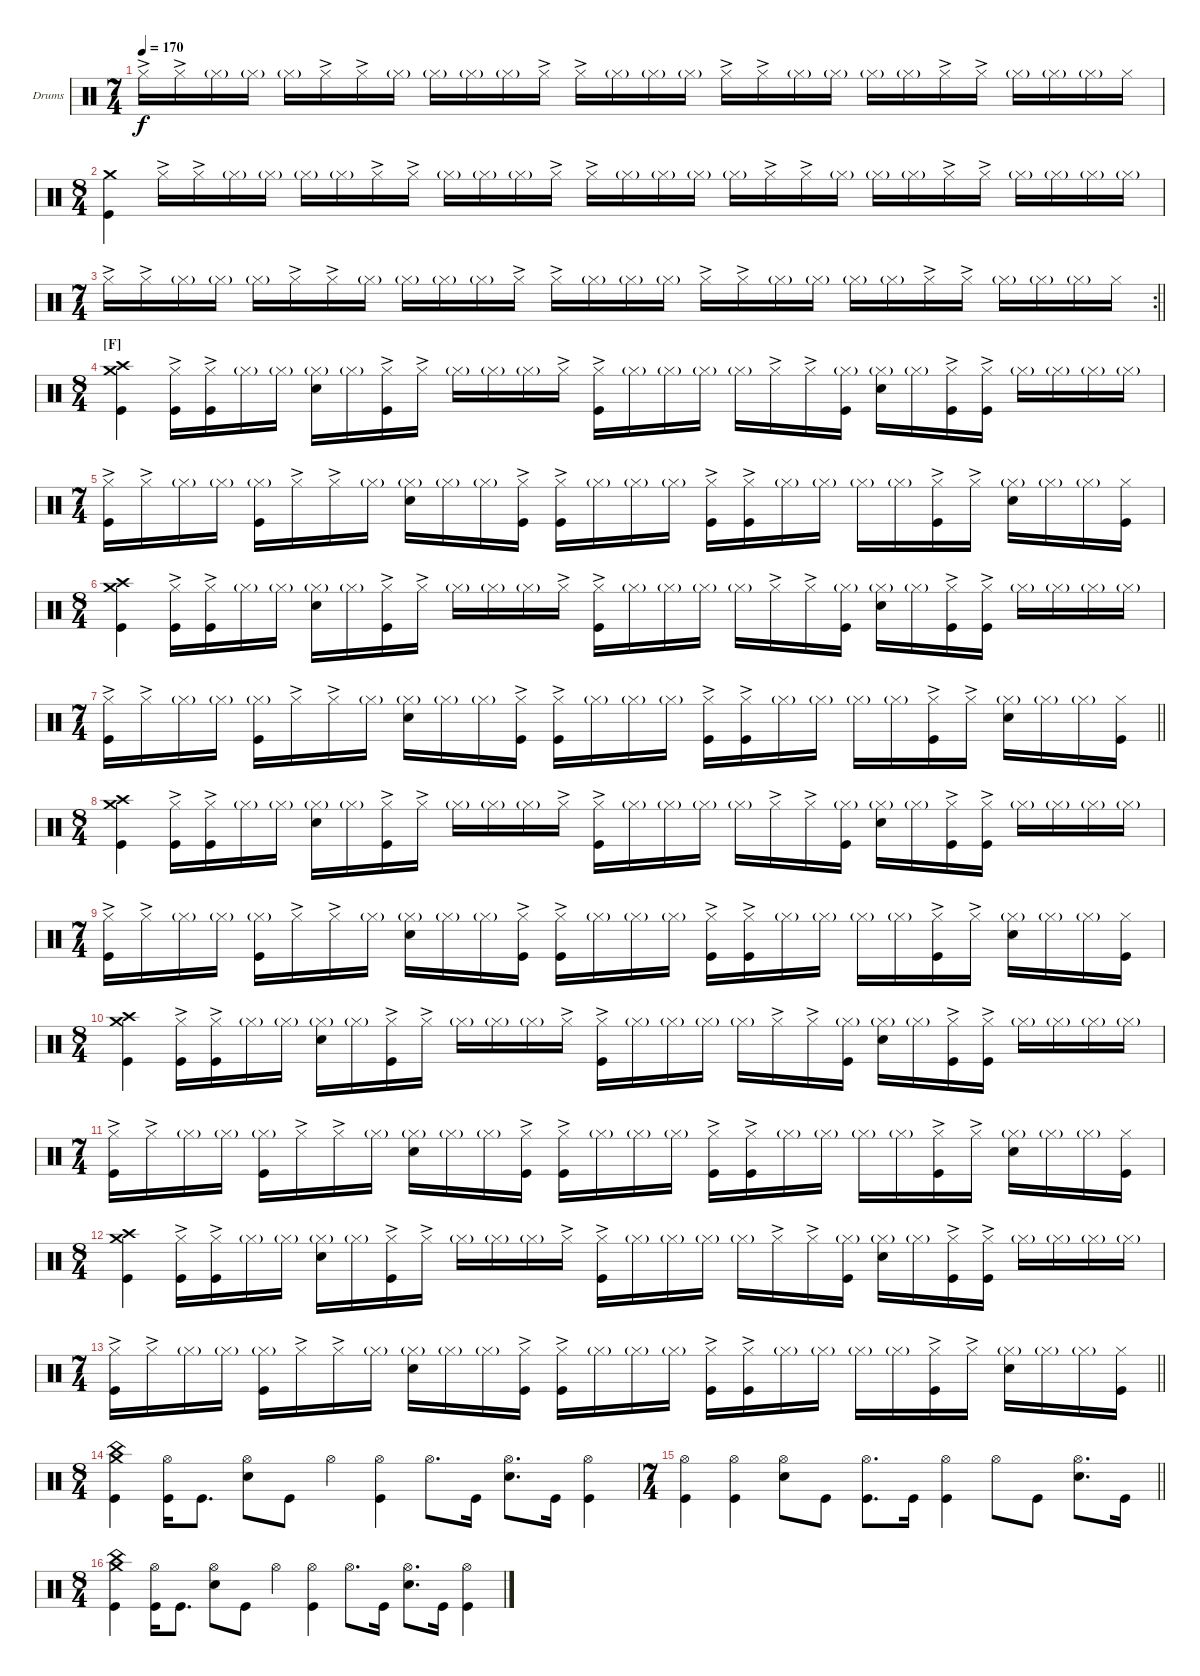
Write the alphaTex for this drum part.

\bracketExtendMode groupsimilarinstruments
\firstSystemTrackNameOrientation horizontal
\otherSystemsTrackNameOrientation horizontal
\track ("Drumkit" "Drums") {multiBarRest instrument percussion}
\staff {score}
\articulation defaults
\ts (7 4)
\tempo 170
\clef neutral
\ks c "Hi-Hat (closed)"{ac}.16{dy f} "Hi-Hat (closed)"{ac}.16 "Hi-Hat (closed)"{g}.16 "Hi-Hat (closed)"{g}.16{beam split} "Hi-Hat (closed)"{g}.16 "Hi-Hat (closed)"{ac}.16 "Hi-Hat (closed)"{ac}.16 "Hi-Hat (closed)"{g}.16{beam split} "Hi-Hat (closed)"{g}.16 "Hi-Hat (closed)"{g}.16 "Hi-Hat (closed)"{g}.16 "Hi-Hat (closed)"{ac}.16 "Hi-Hat (closed)"{ac}.16 "Hi-Hat (closed)"{g}.16 "Hi-Hat (closed)"{g}.16 "Hi-Hat (closed)"{g}.16{beam split} "Hi-Hat (closed)"{ac}.16 "Hi-Hat (closed)"{ac}.16 "Hi-Hat (closed)"{g}.16 "Hi-Hat (closed)"{g}.16 "Hi-Hat (closed)"{g}.16 "Hi-Hat (closed)"{g}.16 "Hi-Hat (closed)"{ac}.16 "Hi-Hat (closed)"{ac}.16{beam split} "Hi-Hat (closed)"{g}.16 "Hi-Hat (closed)"{g}.16 "Hi-Hat (closed)"{g}.16 "Hi-Hat (closed)".16
|
\ts (8 4)
("Crash medium (hit)" "Kick (hit)").4 "Hi-Hat (closed)"{ac}.16 "Hi-Hat (closed)"{ac}.16 "Hi-Hat (closed)"{g}.16 "Hi-Hat (closed)"{g}.16 "Hi-Hat (closed)"{g}.16 "Hi-Hat (closed)"{g}.16 "Hi-Hat (closed)"{ac}.16 "Hi-Hat (closed)"{ac}.16{beam split} "Hi-Hat (closed)"{g}.16 "Hi-Hat (closed)"{g}.16 "Hi-Hat (closed)"{g}.16 "Hi-Hat (closed)"{ac}.16 "Hi-Hat (closed)"{ac}.16 "Hi-Hat (closed)"{g}.16 "Hi-Hat (closed)"{g}.16 "Hi-Hat (closed)"{g}.16{beam split} "Hi-Hat (closed)"{g}.16 "Hi-Hat (closed)"{ac}.16 "Hi-Hat (closed)"{ac}.16 "Hi-Hat (closed)"{g}.16 "Hi-Hat (closed)"{g}.16 "Hi-Hat (closed)"{g}.16 "Hi-Hat (closed)"{ac}.16 "Hi-Hat (closed)"{ac}.16{beam split} "Hi-Hat (closed)"{g}.16 "Hi-Hat (closed)"{g}.16 "Hi-Hat (closed)"{g}.16 "Hi-Hat (closed)"{g}.16 |
\rc 2
\ts (7 4)
\barLineRight lightlight "Hi-Hat (closed)"{ac}.16 "Hi-Hat (closed)"{ac}.16 "Hi-Hat (closed)"{g}.16 "Hi-Hat (closed)"{g}.16{beam split} "Hi-Hat (closed)"{g}.16 "Hi-Hat (closed)"{ac}.16 "Hi-Hat (closed)"{ac}.16 "Hi-Hat (closed)"{g}.16{beam split} "Hi-Hat (closed)"{g}.16 "Hi-Hat (closed)"{g}.16 "Hi-Hat (closed)"{g}.16 "Hi-Hat (closed)"{ac}.16 "Hi-Hat (closed)"{ac}.16 "Hi-Hat (closed)"{g}.16 "Hi-Hat (closed)"{g}.16 "Hi-Hat (closed)"{g}.16{beam split} "Hi-Hat (closed)"{ac}.16 "Hi-Hat (closed)"{ac}.16 "Hi-Hat (closed)"{g}.16 "Hi-Hat (closed)"{g}.16 "Hi-Hat (closed)"{g}.16 "Hi-Hat (closed)"{g}.16 "Hi-Hat (closed)"{ac}.16 "Hi-Hat (closed)"{ac}.16{beam split} "Hi-Hat (closed)"{g}.16 "Hi-Hat (closed)"{g}.16 "Hi-Hat (closed)"{g}.16 "Hi-Hat (closed)".16
|
\ts (8 4)
\section ("F" "")
("Crash medium (hit)" "Crash high (hit)" "Kick (hit)").4 ("Hi-Hat (closed)"{ac} "Kick (hit)").16 ("Hi-Hat (closed)"{ac} "Kick (hit)").16 "Hi-Hat (closed)"{g}.16 "Hi-Hat (closed)"{g}.16 ("Hi-Hat (closed)"{g} "Snare (hit) 2").16 "Hi-Hat (closed)"{g}.16 ("Hi-Hat (closed)"{ac} "Kick (hit)").16 "Hi-Hat (closed)"{ac}.16{beam split} "Hi-Hat (closed)"{g}.16 "Hi-Hat (closed)"{g}.16 "Hi-Hat (closed)"{g}.16 "Hi-Hat (closed)"{ac}.16 ("Hi-Hat (closed)"{ac} "Kick (hit)").16 "Hi-Hat (closed)"{g}.16 "Hi-Hat (closed)"{g}.16 "Hi-Hat (closed)"{g}.16{beam split} "Hi-Hat (closed)"{g}.16 "Hi-Hat (closed)"{ac}.16 "Hi-Hat (closed)"{ac}.16 ("Hi-Hat (closed)"{g} "Kick (hit)").16 ("Hi-Hat (closed)"{g} "Snare (hit) 2").16 "Hi-Hat (closed)"{g}.16 ("Hi-Hat (closed)"{ac} "Kick (hit)").16 ("Hi-Hat (closed)"{ac} "Kick (hit)").16{beam split} "Hi-Hat (closed)"{g}.16 "Hi-Hat (closed)"{g}.16 "Hi-Hat (closed)"{g}.16 "Hi-Hat (closed)"{g}.16 |
\ts (7 4)
("Hi-Hat (closed)"{ac} "Kick (hit)").16 "Hi-Hat (closed)"{ac}.16 "Hi-Hat (closed)"{g}.16 "Hi-Hat (closed)"{g}.16{beam split} ("Hi-Hat (closed)"{g} "Kick (hit)").16 "Hi-Hat (closed)"{ac}.16 "Hi-Hat (closed)"{ac}.16 "Hi-Hat (closed)"{g}.16{beam split} ("Hi-Hat (closed)"{g} "Snare (hit) 2").16 "Hi-Hat (closed)"{g}.16 "Hi-Hat (closed)"{g}.16 ("Hi-Hat (closed)"{ac} "Kick (hit)").16 ("Hi-Hat (closed)"{ac} "Kick (hit)").16 "Hi-Hat (closed)"{g}.16 "Hi-Hat (closed)"{g}.16 "Hi-Hat (closed)"{g}.16{beam split} ("Hi-Hat (closed)"{ac} "Kick (hit)").16 ("Hi-Hat (closed)"{ac} "Kick (hit)").16 "Hi-Hat (closed)"{g}.16 "Hi-Hat (closed)"{g}.16 "Hi-Hat (closed)"{g}.16 "Hi-Hat (closed)"{g}.16 ("Hi-Hat (closed)"{ac} "Kick (hit)").16 "Hi-Hat (closed)"{ac}.16{beam split} ("Hi-Hat (closed)"{g} "Snare (hit) 2").16 "Hi-Hat (closed)"{g}.16 "Hi-Hat (closed)"{g}.16 ("Hi-Hat (closed)" "Kick (hit)").16 |
\ts (8 4)
("Crash medium (hit)" "Crash high (hit)" "Kick (hit)").4 ("Hi-Hat (closed)"{ac} "Kick (hit)").16 ("Hi-Hat (closed)"{ac} "Kick (hit)").16 "Hi-Hat (closed)"{g}.16 "Hi-Hat (closed)"{g}.16 ("Hi-Hat (closed)"{g} "Snare (hit) 2").16 "Hi-Hat (closed)"{g}.16 ("Hi-Hat (closed)"{ac} "Kick (hit)").16 "Hi-Hat (closed)"{ac}.16{beam split} "Hi-Hat (closed)"{g}.16 "Hi-Hat (closed)"{g}.16 "Hi-Hat (closed)"{g}.16 "Hi-Hat (closed)"{ac}.16 ("Hi-Hat (closed)"{ac} "Kick (hit)").16 "Hi-Hat (closed)"{g}.16 "Hi-Hat (closed)"{g}.16 "Hi-Hat (closed)"{g}.16{beam split} "Hi-Hat (closed)"{g}.16 "Hi-Hat (closed)"{ac}.16 "Hi-Hat (closed)"{ac}.16 ("Hi-Hat (closed)"{g} "Kick (hit)").16 ("Hi-Hat (closed)"{g} "Snare (hit) 2").16 "Hi-Hat (closed)"{g}.16 ("Hi-Hat (closed)"{ac} "Kick (hit)").16 ("Hi-Hat (closed)"{ac} "Kick (hit)").16{beam split} "Hi-Hat (closed)"{g}.16 "Hi-Hat (closed)"{g}.16 "Hi-Hat (closed)"{g}.16 "Hi-Hat (closed)"{g}.16 |
\ts (7 4)
\barLineRight lightlight
("Hi-Hat (closed)"{ac} "Kick (hit)").16 "Hi-Hat (closed)"{ac}.16 "Hi-Hat (closed)"{g}.16 "Hi-Hat (closed)"{g}.16{beam split} ("Hi-Hat (closed)"{g} "Kick (hit)").16 "Hi-Hat (closed)"{ac}.16 "Hi-Hat (closed)"{ac}.16 "Hi-Hat (closed)"{g}.16{beam split} ("Hi-Hat (closed)"{g} "Snare (hit) 2").16 "Hi-Hat (closed)"{g}.16 "Hi-Hat (closed)"{g}.16 ("Hi-Hat (closed)"{ac} "Kick (hit)").16 ("Hi-Hat (closed)"{ac} "Kick (hit)").16 "Hi-Hat (closed)"{g}.16 "Hi-Hat (closed)"{g}.16 "Hi-Hat (closed)"{g}.16{beam split} ("Hi-Hat (closed)"{ac} "Kick (hit)").16 ("Hi-Hat (closed)"{ac} "Kick (hit)").16 "Hi-Hat (closed)"{g}.16 "Hi-Hat (closed)"{g}.16 "Hi-Hat (closed)"{g}.16 "Hi-Hat (closed)"{g}.16 ("Hi-Hat (closed)"{ac} "Kick (hit)").16 "Hi-Hat (closed)"{ac}.16{beam split} ("Hi-Hat (closed)"{g} "Snare (hit) 2").16 "Hi-Hat (closed)"{g}.16 "Hi-Hat (closed)"{g}.16 ("Hi-Hat (closed)" "Kick (hit)").16 |
\ts (8 4)
("Crash medium (hit)" "Crash high (hit)" "Kick (hit)").4 ("Hi-Hat (closed)"{ac} "Kick (hit)").16 ("Hi-Hat (closed)"{ac} "Kick (hit)").16 "Hi-Hat (closed)"{g}.16 "Hi-Hat (closed)"{g}.16 ("Hi-Hat (closed)"{g} "Snare (hit) 2").16 "Hi-Hat (closed)"{g}.16 ("Hi-Hat (closed)"{ac} "Kick (hit)").16 "Hi-Hat (closed)"{ac}.16{beam split} "Hi-Hat (closed)"{g}.16 "Hi-Hat (closed)"{g}.16 "Hi-Hat (closed)"{g}.16 "Hi-Hat (closed)"{ac}.16 ("Hi-Hat (closed)"{ac} "Kick (hit)").16 "Hi-Hat (closed)"{g}.16 "Hi-Hat (closed)"{g}.16 "Hi-Hat (closed)"{g}.16{beam split} "Hi-Hat (closed)"{g}.16 "Hi-Hat (closed)"{ac}.16 "Hi-Hat (closed)"{ac}.16 ("Hi-Hat (closed)"{g} "Kick (hit)").16 ("Hi-Hat (closed)"{g} "Snare (hit) 2").16 "Hi-Hat (closed)"{g}.16 ("Hi-Hat (closed)"{ac} "Kick (hit)").16 ("Hi-Hat (closed)"{ac} "Kick (hit)").16{beam split} "Hi-Hat (closed)"{g}.16 "Hi-Hat (closed)"{g}.16 "Hi-Hat (closed)"{g}.16 "Hi-Hat (closed)"{g}.16 |
\ts (7 4)
("Hi-Hat (closed)"{ac} "Kick (hit)").16 "Hi-Hat (closed)"{ac}.16 "Hi-Hat (closed)"{g}.16 "Hi-Hat (closed)"{g}.16{beam split} ("Hi-Hat (closed)"{g} "Kick (hit)").16 "Hi-Hat (closed)"{ac}.16 "Hi-Hat (closed)"{ac}.16 "Hi-Hat (closed)"{g}.16{beam split} ("Hi-Hat (closed)"{g} "Snare (hit) 2").16 "Hi-Hat (closed)"{g}.16 "Hi-Hat (closed)"{g}.16 ("Hi-Hat (closed)"{ac} "Kick (hit)").16 ("Hi-Hat (closed)"{ac} "Kick (hit)").16 "Hi-Hat (closed)"{g}.16 "Hi-Hat (closed)"{g}.16 "Hi-Hat (closed)"{g}.16{beam split} ("Hi-Hat (closed)"{ac} "Kick (hit)").16 ("Hi-Hat (closed)"{ac} "Kick (hit)").16 "Hi-Hat (closed)"{g}.16 "Hi-Hat (closed)"{g}.16 "Hi-Hat (closed)"{g}.16 "Hi-Hat (closed)"{g}.16 ("Hi-Hat (closed)"{ac} "Kick (hit)").16 "Hi-Hat (closed)"{ac}.16{beam split} ("Hi-Hat (closed)"{g} "Snare (hit) 2").16 "Hi-Hat (closed)"{g}.16 "Hi-Hat (closed)"{g}.16 ("Hi-Hat (closed)" "Kick (hit)").16 |
\ts (8 4)
("Crash medium (hit)" "Crash high (hit)" "Kick (hit)").4 ("Hi-Hat (closed)"{ac} "Kick (hit)").16 ("Hi-Hat (closed)"{ac} "Kick (hit)").16 "Hi-Hat (closed)"{g}.16 "Hi-Hat (closed)"{g}.16 ("Hi-Hat (closed)"{g} "Snare (hit) 2").16 "Hi-Hat (closed)"{g}.16 ("Hi-Hat (closed)"{ac} "Kick (hit)").16 "Hi-Hat (closed)"{ac}.16{beam split} "Hi-Hat (closed)"{g}.16 "Hi-Hat (closed)"{g}.16 "Hi-Hat (closed)"{g}.16 "Hi-Hat (closed)"{ac}.16 ("Hi-Hat (closed)"{ac} "Kick (hit)").16 "Hi-Hat (closed)"{g}.16 "Hi-Hat (closed)"{g}.16 "Hi-Hat (closed)"{g}.16{beam split} "Hi-Hat (closed)"{g}.16 "Hi-Hat (closed)"{ac}.16 "Hi-Hat (closed)"{ac}.16 ("Hi-Hat (closed)"{g} "Kick (hit)").16 ("Hi-Hat (closed)"{g} "Snare (hit) 2").16 "Hi-Hat (closed)"{g}.16 ("Hi-Hat (closed)"{ac} "Kick (hit)").16 ("Hi-Hat (closed)"{ac} "Kick (hit)").16{beam split} "Hi-Hat (closed)"{g}.16 "Hi-Hat (closed)"{g}.16 "Hi-Hat (closed)"{g}.16 "Hi-Hat (closed)"{g}.16 |
\ts (7 4)
("Hi-Hat (closed)"{ac} "Kick (hit)").16 "Hi-Hat (closed)"{ac}.16 "Hi-Hat (closed)"{g}.16 "Hi-Hat (closed)"{g}.16{beam split} ("Hi-Hat (closed)"{g} "Kick (hit)").16 "Hi-Hat (closed)"{ac}.16 "Hi-Hat (closed)"{ac}.16 "Hi-Hat (closed)"{g}.16{beam split} ("Hi-Hat (closed)"{g} "Snare (hit) 2").16 "Hi-Hat (closed)"{g}.16 "Hi-Hat (closed)"{g}.16 ("Hi-Hat (closed)"{ac} "Kick (hit)").16 ("Hi-Hat (closed)"{ac} "Kick (hit)").16 "Hi-Hat (closed)"{g}.16 "Hi-Hat (closed)"{g}.16 "Hi-Hat (closed)"{g}.16{beam split} ("Hi-Hat (closed)"{ac} "Kick (hit)").16 ("Hi-Hat (closed)"{ac} "Kick (hit)").16 "Hi-Hat (closed)"{g}.16 "Hi-Hat (closed)"{g}.16 "Hi-Hat (closed)"{g}.16 "Hi-Hat (closed)"{g}.16 ("Hi-Hat (closed)"{ac} "Kick (hit)").16 "Hi-Hat (closed)"{ac}.16{beam split} ("Hi-Hat (closed)"{g} "Snare (hit) 2").16 "Hi-Hat (closed)"{g}.16 "Hi-Hat (closed)"{g}.16 ("Hi-Hat (closed)" "Kick (hit)").16 |
\ts (8 4)
("Crash medium (hit)" "Crash high (hit)" "Kick (hit)").4 ("Hi-Hat (closed)"{ac} "Kick (hit)").16 ("Hi-Hat (closed)"{ac} "Kick (hit)").16 "Hi-Hat (closed)"{g}.16 "Hi-Hat (closed)"{g}.16 ("Hi-Hat (closed)"{g} "Snare (hit) 2").16 "Hi-Hat (closed)"{g}.16 ("Hi-Hat (closed)"{ac} "Kick (hit)").16 "Hi-Hat (closed)"{ac}.16{beam split} "Hi-Hat (closed)"{g}.16 "Hi-Hat (closed)"{g}.16 "Hi-Hat (closed)"{g}.16 "Hi-Hat (closed)"{ac}.16 ("Hi-Hat (closed)"{ac} "Kick (hit)").16 "Hi-Hat (closed)"{g}.16 "Hi-Hat (closed)"{g}.16 "Hi-Hat (closed)"{g}.16{beam split} "Hi-Hat (closed)"{g}.16 "Hi-Hat (closed)"{ac}.16 "Hi-Hat (closed)"{ac}.16 ("Hi-Hat (closed)"{g} "Kick (hit)").16 ("Hi-Hat (closed)"{g} "Snare (hit) 2").16 "Hi-Hat (closed)"{g}.16 ("Hi-Hat (closed)"{ac} "Kick (hit)").16 ("Hi-Hat (closed)"{ac} "Kick (hit)").16{beam split} "Hi-Hat (closed)"{g}.16 "Hi-Hat (closed)"{g}.16 "Hi-Hat (closed)"{g}.16 "Hi-Hat (closed)"{g}.16 |
\ts (7 4)
\barLineRight lightlight
("Hi-Hat (closed)"{ac} "Kick (hit)").16 "Hi-Hat (closed)"{ac}.16 "Hi-Hat (closed)"{g}.16 "Hi-Hat (closed)"{g}.16{beam split} ("Hi-Hat (closed)"{g} "Kick (hit)").16 "Hi-Hat (closed)"{ac}.16 "Hi-Hat (closed)"{ac}.16 "Hi-Hat (closed)"{g}.16{beam split} ("Hi-Hat (closed)"{g} "Snare (hit) 2").16 "Hi-Hat (closed)"{g}.16 "Hi-Hat (closed)"{g}.16 ("Hi-Hat (closed)"{ac} "Kick (hit)").16 ("Hi-Hat (closed)"{ac} "Kick (hit)").16 "Hi-Hat (closed)"{g}.16 "Hi-Hat (closed)"{g}.16 "Hi-Hat (closed)"{g}.16{beam split} ("Hi-Hat (closed)"{ac} "Kick (hit)").16 ("Hi-Hat (closed)"{ac} "Kick (hit)").16 "Hi-Hat (closed)"{g}.16 "Hi-Hat (closed)"{g}.16 "Hi-Hat (closed)"{g}.16 "Hi-Hat (closed)"{g}.16 ("Hi-Hat (closed)"{ac} "Kick (hit)").16 "Hi-Hat (closed)"{ac}.16{beam split} ("Hi-Hat (closed)"{g} "Snare (hit) 2").16 "Hi-Hat (closed)"{g}.16 "Hi-Hat (closed)"{g}.16 ("Hi-Hat (closed)" "Kick (hit)").16 |
\ts (8 4)
("Crash medium (hit)" "China (hit)" "Kick (hit)").4 ("Hi-Hat (open)" "Kick (hit)").16 "Kick (hit)".8{d} ("Hi-Hat (open)" "Snare (hit) 2").8 "Kick (hit)".8 "Hi-Hat (open)".4 ("Hi-Hat (open)" "Kick (hit)").4 "Hi-Hat (open)".8{d} "Kick (hit)".16 ("Hi-Hat (open)" "Snare (hit) 2").8{d} "Kick (hit)".16{beam split} ("Hi-Hat (open)" "Kick (hit)").4 |
\ts (7 4)
\barLineRight lightlight
("Hi-Hat (open)" "Kick (hit)").4 ("Hi-Hat (open)" "Kick (hit)").4 ("Hi-Hat (open)" "Snare (hit) 2").8 "Kick (hit)".8 ("Hi-Hat (open)" "Kick (hit)").8{d} "Kick (hit)".16 ("Hi-Hat (open)" "Kick (hit)").4 "Hi-Hat (open)".8 "Kick (hit)".8 ("Hi-Hat (open)" "Snare (hit) 2").8{d} "Kick (hit)".16 |
\ts (8 4)
("Crash medium (hit)" "China (hit)" "Kick (hit)").4 ("Hi-Hat (open)" "Kick (hit)").16 "Kick (hit)".8{d} ("Hi-Hat (open)" "Snare (hit) 2").8 "Kick (hit)".8 "Hi-Hat (open)".4 ("Hi-Hat (open)" "Kick (hit)").4 "Hi-Hat (open)".8{d} "Kick (hit)".16 ("Hi-Hat (open)" "Snare (hit) 2").8{d} "Kick (hit)".16{beam split} ("Hi-Hat (open)" "Kick (hit)").4
